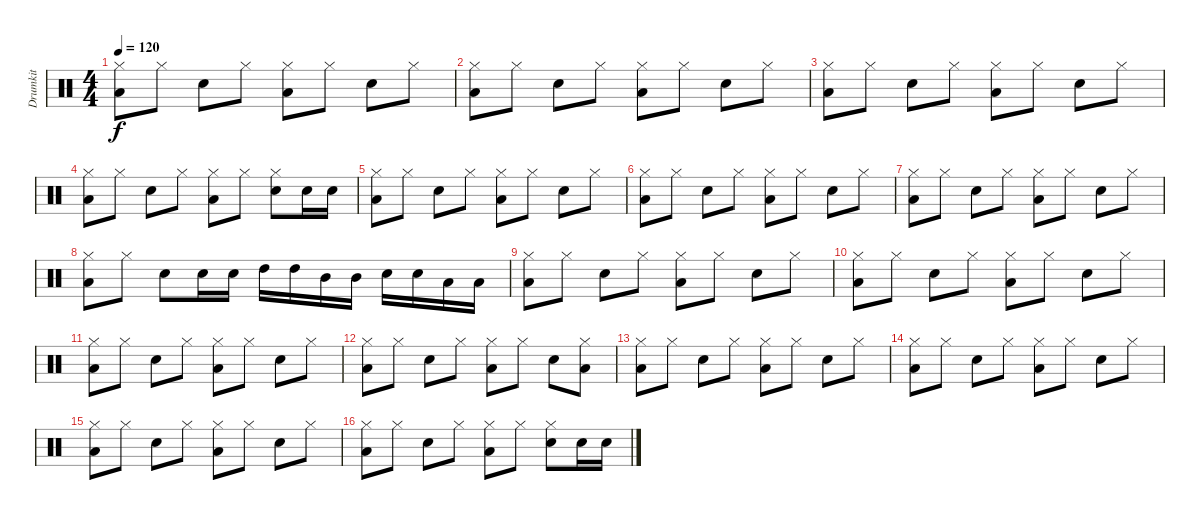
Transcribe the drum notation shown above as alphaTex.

\track ("Drumkit" "Drumkit") {instrument percussion}
\staff {score}
\articulation defaults
\ts (4 4)
\tempo 120
\clef neutral
\ks c
("Hi-Hat (closed)" "Low Floor Tom (hit)").8{dy f} "Hi-Hat (closed)".8 "Snare (hit) 2".8 "Hi-Hat (closed)".8 ("Hi-Hat (closed)" "Low Floor Tom (hit)").8 "Hi-Hat (closed)".8 "Snare (hit) 2".8 "Hi-Hat (closed)".8 |
("Hi-Hat (closed)" "Low Floor Tom (hit)").8 "Hi-Hat (closed)".8 "Snare (hit) 2".8 "Hi-Hat (closed)".8 ("Hi-Hat (closed)" "Low Floor Tom (hit)").8 "Hi-Hat (closed)".8 "Snare (hit) 2".8 "Hi-Hat (closed)".8 |
("Hi-Hat (closed)" "Low Floor Tom (hit)").8 "Hi-Hat (closed)".8 "Snare (hit) 2".8 "Hi-Hat (closed)".8 ("Hi-Hat (closed)" "Low Floor Tom (hit)").8 "Hi-Hat (closed)".8 "Snare (hit) 2".8 "Hi-Hat (closed)".8 |
("Hi-Hat (closed)" "Low Floor Tom (hit)").8 "Hi-Hat (closed)".8 "Snare (hit) 2".8 "Hi-Hat (closed)".8 ("Hi-Hat (closed)" "Low Floor Tom (hit)").8 "Hi-Hat (closed)".8 ("Snare (hit) 2" "Hi-Hat (closed)").8 "Snare (hit) 2".16 "Snare (hit) 2".16 |
("Hi-Hat (closed)" "Low Floor Tom (hit)").8 "Hi-Hat (closed)".8 "Snare (hit) 2".8 "Hi-Hat (closed)".8 ("Hi-Hat (closed)" "Low Floor Tom (hit)").8 "Hi-Hat (closed)".8 "Snare (hit) 2".8 "Hi-Hat (closed)".8 |
("Hi-Hat (closed)" "Low Floor Tom (hit)").8 "Hi-Hat (closed)".8 "Snare (hit) 2".8 "Hi-Hat (closed)".8 ("Hi-Hat (closed)" "Low Floor Tom (hit)").8 "Hi-Hat (closed)".8 "Snare (hit) 2".8 "Hi-Hat (closed)".8 |
("Hi-Hat (closed)" "Low Floor Tom (hit)").8 "Hi-Hat (closed)".8 "Snare (hit) 2".8 "Hi-Hat (closed)".8 ("Hi-Hat (closed)" "Low Floor Tom (hit)").8 "Hi-Hat (closed)".8 "Snare (hit) 2".8 "Hi-Hat (closed)".8 |
("Hi-Hat (closed)" "Low Floor Tom (hit)").8 "Hi-Hat (closed)".8 "Snare (hit) 2".8 "Snare (hit) 2".16 "Snare (hit) 2".16 "High Tom (hit)".16 "High Tom (hit)".16 "Mid Tom (hit)".16 "Mid Tom (hit)".16 "Snare (hit) 2".16 "Snare (hit) 2".16 "Low Tom (hit)".16 "Low Tom (hit)".16 |
("Hi-Hat (closed)" "Low Floor Tom (hit)").8 "Hi-Hat (closed)".8 "Snare (hit) 2".8 "Hi-Hat (closed)".8 ("Hi-Hat (closed)" "Low Floor Tom (hit)").8 "Hi-Hat (closed)".8 "Snare (hit) 2".8 "Hi-Hat (closed)".8 |
("Hi-Hat (closed)" "Low Floor Tom (hit)").8 "Hi-Hat (closed)".8 "Snare (hit) 2".8 "Hi-Hat (closed)".8 ("Hi-Hat (closed)" "Low Floor Tom (hit)").8 "Hi-Hat (closed)".8 "Snare (hit) 2".8 "Hi-Hat (closed)".8 |
("Hi-Hat (closed)" "Low Floor Tom (hit)").8 "Hi-Hat (closed)".8 "Snare (hit) 2".8 "Hi-Hat (closed)".8 ("Hi-Hat (closed)" "Low Floor Tom (hit)").8 "Hi-Hat (closed)".8 "Snare (hit) 2".8 "Hi-Hat (closed)".8 |
("Hi-Hat (closed)" "Low Floor Tom (hit)").8 "Hi-Hat (closed)".8 "Snare (hit) 2".8 "Hi-Hat (closed)".8 ("Hi-Hat (closed)" "Low Floor Tom (hit)").8 "Hi-Hat (closed)".8 "Snare (hit) 2".8 ("Hi-Hat (closed)" "Low Floor Tom (hit)").8 |
("Hi-Hat (closed)" "Low Floor Tom (hit)").8 "Hi-Hat (closed)".8 "Snare (hit) 2".8 "Hi-Hat (closed)".8 ("Hi-Hat (closed)" "Low Floor Tom (hit)").8 "Hi-Hat (closed)".8 "Snare (hit) 2".8 "Hi-Hat (closed)".8 |
("Hi-Hat (closed)" "Low Floor Tom (hit)").8 "Hi-Hat (closed)".8 "Snare (hit) 2".8 "Hi-Hat (closed)".8 ("Hi-Hat (closed)" "Low Floor Tom (hit)").8 "Hi-Hat (closed)".8 "Snare (hit) 2".8 "Hi-Hat (closed)".8 |
("Hi-Hat (closed)" "Low Floor Tom (hit)").8 "Hi-Hat (closed)".8 "Snare (hit) 2".8 "Hi-Hat (closed)".8 ("Hi-Hat (closed)" "Low Floor Tom (hit)").8 "Hi-Hat (closed)".8 "Snare (hit) 2".8 "Hi-Hat (closed)".8 |
("Hi-Hat (closed)" "Low Floor Tom (hit)").8 "Hi-Hat (closed)".8 "Snare (hit) 2".8 "Hi-Hat (closed)".8 ("Hi-Hat (closed)" "Low Floor Tom (hit)").8 "Hi-Hat (closed)".8 ("Snare (hit) 2" "Hi-Hat (closed)").8 "Snare (hit) 2".16 "Snare (hit) 2".16
